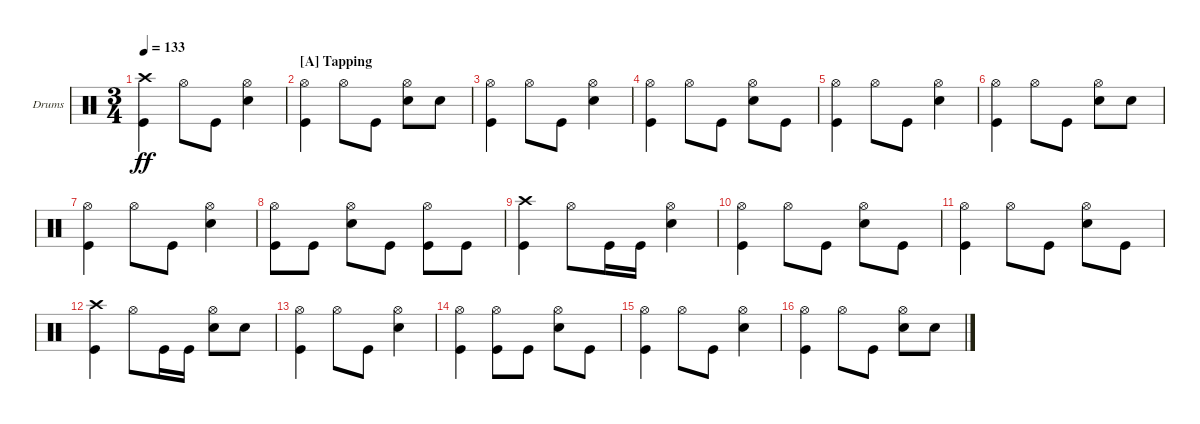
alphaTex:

\bracketExtendMode groupsimilarinstruments
\firstSystemTrackNameOrientation horizontal
\otherSystemsTrackNameOrientation horizontal
\track ("Drumkit" "Drums") {instrument percussion}
\staff {score}
\articulation defaults
\ts (3 4)
\tempo 133
\clef neutral
\ks c
("Kick (hit)" "Crash high (hit)").4{dy ff} "Hi-Hat (open)".8 "Kick (hit)".8 ("Snare (hit) 2" "Hi-Hat (open)").4 |
\section ("A" "Tapping")
("Kick (hit)" "Hi-Hat (open)").4 "Hi-Hat (open)".8 "Kick (hit)".8 ("Snare (hit) 2" "Hi-Hat (open)").8 "Snare (hit) 2".8 |
("Kick (hit)" "Hi-Hat (open)").4 "Hi-Hat (open)".8 "Kick (hit)".8 ("Snare (hit) 2" "Hi-Hat (open)").4 |
("Kick (hit)" "Hi-Hat (open)").4 "Hi-Hat (open)".8 "Kick (hit)".8 ("Snare (hit) 2" "Hi-Hat (open)").8 "Kick (hit)".8 |
("Kick (hit)" "Hi-Hat (open)").4 "Hi-Hat (open)".8 "Kick (hit)".8 ("Snare (hit) 2" "Hi-Hat (open)").4 |
("Kick (hit)" "Hi-Hat (open)").4 "Hi-Hat (open)".8 "Kick (hit)".8 ("Snare (hit) 2" "Hi-Hat (open)").8 "Snare (hit) 2".8 |
("Kick (hit)" "Hi-Hat (open)").4 "Hi-Hat (open)".8 "Kick (hit)".8 ("Snare (hit) 2" "Hi-Hat (open)").4 |
("Kick (hit)" "Hi-Hat (open)").8 "Kick (hit)".8 ("Hi-Hat (open)" "Snare (hit) 2").8 "Kick (hit)".8 ("Hi-Hat (open)" "Kick (hit)").8 "Kick (hit)".8 |
("Kick (hit)" "Crash high (hit)").4 "Hi-Hat (open)".8 "Kick (hit)".16 "Kick (hit)".16 ("Snare (hit) 2" "Hi-Hat (open)").4 |
("Kick (hit)" "Hi-Hat (open)").4 "Hi-Hat (open)".8 "Kick (hit)".8 ("Snare (hit) 2" "Hi-Hat (open)").8 "Kick (hit)".8 |
("Kick (hit)" "Hi-Hat (open)").4 "Hi-Hat (open)".8 "Kick (hit)".8 ("Snare (hit) 2" "Hi-Hat (open)").8 "Kick (hit)".8 |
("Kick (hit)" "Crash high (hit)").4 "Hi-Hat (open)".8 "Kick (hit)".16 "Kick (hit)".16 ("Snare (hit) 2" "Hi-Hat (open)").8 "Snare (hit) 2".8 |
("Kick (hit)" "Hi-Hat (open)").4 "Hi-Hat (open)".8 "Kick (hit)".8 ("Snare (hit) 2" "Hi-Hat (open)").4 |
("Kick (hit)" "Hi-Hat (open)").4 ("Hi-Hat (open)" "Kick (hit)").8 "Kick (hit)".8 ("Snare (hit) 2" "Hi-Hat (open)").8 "Kick (hit)".8 |
("Kick (hit)" "Hi-Hat (open)").4 "Hi-Hat (open)".8 "Kick (hit)".8 ("Snare (hit) 2" "Hi-Hat (open)").4 |
("Kick (hit)" "Hi-Hat (open)").4 "Hi-Hat (open)".8 "Kick (hit)".8 ("Snare (hit) 2" "Hi-Hat (open)").8 "Snare (hit) 2".8
